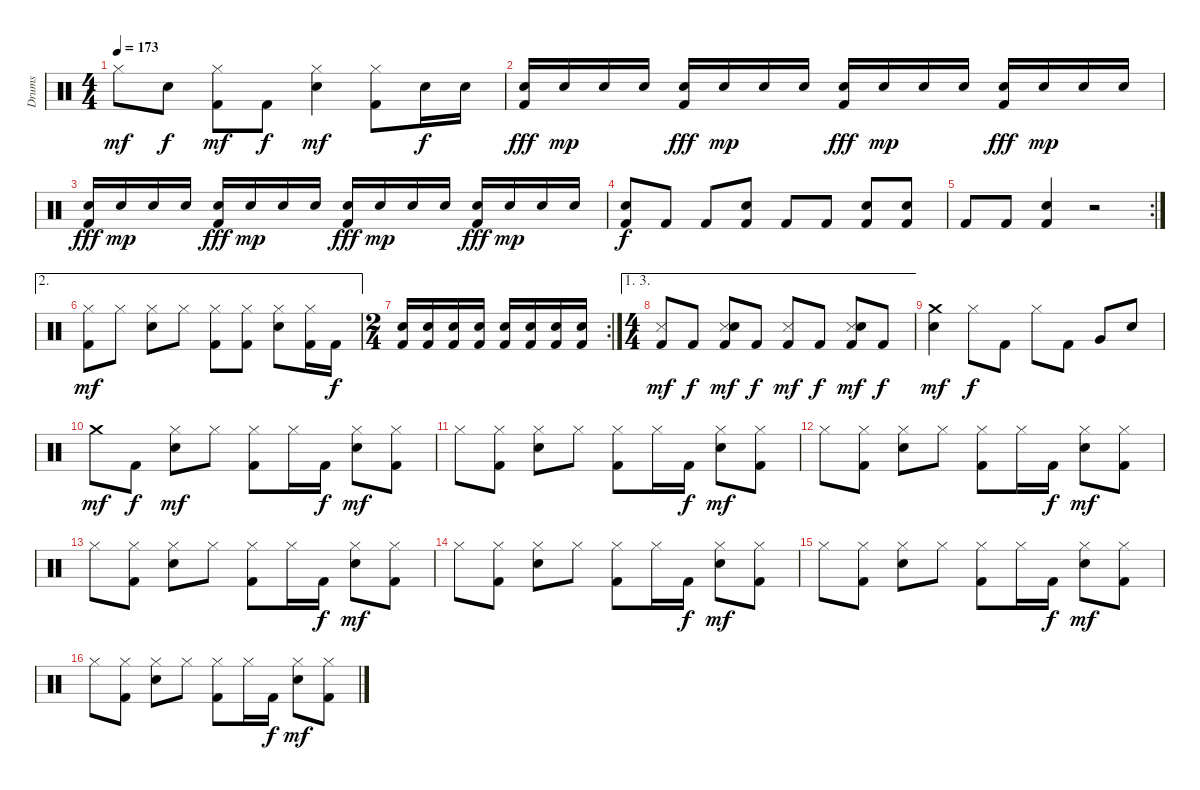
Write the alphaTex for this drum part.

\track ("Drums" "Drums") {instrument percussion}
\staff {score}
\articulation defaults
\ts (4 4)
\tempo 173
\clef neutral
\ks c "Hi-Hat (closed)".8{dy mf} "Electric Snare (hit)".8{dy f}
("Hi-Hat (closed)" "Kick (hit) 2").8{dy mf} "Kick (hit) 2".8{dy f} ("Hi-Hat (closed)" "Electric Snare (hit)").4{dy mf} ("Hi-Hat (closed)" "Kick (hit) 2").8 "Electric Snare (hit)".16{dy f} "Electric Snare (hit)".16 |
("Electric Snare (hit)" "Kick (hit) 2").16{dy fff} "Electric Snare (hit)".16{dy mp} "Electric Snare (hit)".16 "Electric Snare (hit)".16 ("Electric Snare (hit)" "Kick (hit) 2").16{dy fff} "Electric Snare (hit)".16{dy mp} "Electric Snare (hit)".16 "Electric Snare (hit)".16 ("Electric Snare (hit)" "Kick (hit) 2").16{dy fff} "Electric Snare (hit)".16{dy mp} "Electric Snare (hit)".16 "Electric Snare (hit)".16 ("Electric Snare (hit)" "Kick (hit) 2").16{dy fff} "Electric Snare (hit)".16{dy mp} "Electric Snare (hit)".16 "Electric Snare (hit)".16 |
("Electric Snare (hit)" "Kick (hit) 2").16{dy fff} "Electric Snare (hit)".16{dy mp} "Electric Snare (hit)".16 "Electric Snare (hit)".16 ("Electric Snare (hit)" "Kick (hit) 2").16{dy fff} "Electric Snare (hit)".16{dy mp} "Electric Snare (hit)".16 "Electric Snare (hit)".16 ("Electric Snare (hit)" "Kick (hit) 2").16{dy fff} "Electric Snare (hit)".16{dy mp} "Electric Snare (hit)".16 "Electric Snare (hit)".16 ("Electric Snare (hit)" "Kick (hit) 2").16{dy fff} "Electric Snare (hit)".16{dy mp} "Electric Snare (hit)".16 "Electric Snare (hit)".16 |
("Electric Snare (hit)" "Kick (hit) 2").8{dy f} "Kick (hit) 2".8 "Kick (hit) 2".8 ("Electric Snare (hit)" "Kick (hit) 2").8 "Kick (hit) 2".8 "Kick (hit) 2".8 ("Electric Snare (hit)" "Kick (hit) 2").8 ("Electric Snare (hit)" "Kick (hit) 2").8 |
\rc 2 "Kick (hit) 2".8 "Kick (hit) 2".8
("Electric Snare (hit)" "Kick (hit) 2").4 r.2 |
\ae 2
("Hi-Hat (closed)" "Kick (hit) 2").8{dy mf} "Hi-Hat (closed)".8 ("Hi-Hat (closed)" "Electric Snare (hit)").8 "Hi-Hat (closed)".8 ("Hi-Hat (closed)" "Kick (hit) 2").8 ("Hi-Hat (closed)" "Kick (hit) 2").8 ("Hi-Hat (closed)" "Electric Snare (hit)").8 ("Hi-Hat (closed)" "Kick (hit) 2").16 "Kick (hit) 2".16{dy f} |
\rc 2
\ts (2 4)
("Electric Snare (hit)" "Kick (hit) 2").16 ("Electric Snare (hit)" "Kick (hit) 2").16 ("Electric Snare (hit)" "Kick (hit) 2").16 ("Electric Snare (hit)" "Kick (hit) 2").16 ("Electric Snare (hit)" "Kick (hit) 2").16 ("Electric Snare (hit)" "Kick (hit) 2").16 ("Electric Snare (hit)" "Kick (hit) 2").16 ("Electric Snare (hit)" "Kick (hit) 2").16 |
\ae (1 3)
\ts (4 4)
("Metronome (hit)" "Kick (hit) 2").8{dy mf} "Kick (hit) 2".8{dy f} ("Metronome (hit)" "Electric Snare (hit)" "Kick (hit) 2").8{dy mf} "Kick (hit) 2".8{dy f} ("Metronome (hit)" "Kick (hit) 2").8{dy mf} "Kick (hit) 2".8{dy f} ("Metronome (hit)" "Electric Snare (hit)" "Kick (hit) 2").8{dy mf} "Kick (hit) 2".8{dy f} |
("Crash medium (hit)" "Electric Snare (hit)").4{dy mf} "Hi-Hat (closed)".8{dy f} "Kick (hit) 2".8 "Hi-Hat (closed)".8 "Kick (hit) 2".8 "Very Low Tom (hit)".8 "Electric Snare (hit)".8 |
"Crash medium (hit)".8{dy mf} "Kick (hit) 2".8{dy f} ("Hi-Hat (closed)" "Electric Snare (hit)").8{dy mf} "Hi-Hat (closed)".8 ("Hi-Hat (closed)" "Kick (hit) 2").8 "Hi-Hat (closed)".16 "Kick (hit) 2".16{dy f} ("Hi-Hat (closed)" "Electric Snare (hit)").8{dy mf} ("Hi-Hat (closed)" "Kick (hit) 2").8 |
"Hi-Hat (closed)".8 ("Hi-Hat (closed)" "Kick (hit) 2").8 ("Hi-Hat (closed)" "Electric Snare (hit)").8 "Hi-Hat (closed)".8 ("Hi-Hat (closed)" "Kick (hit) 2").8 "Hi-Hat (closed)".16 "Kick (hit) 2".16{dy f} ("Hi-Hat (closed)" "Electric Snare (hit)").8{dy mf} ("Hi-Hat (closed)" "Kick (hit) 2").8 |
"Hi-Hat (closed)".8 ("Hi-Hat (closed)" "Kick (hit) 2").8 ("Hi-Hat (closed)" "Electric Snare (hit)").8 "Hi-Hat (closed)".8 ("Hi-Hat (closed)" "Kick (hit) 2").8 "Hi-Hat (closed)".16 "Kick (hit) 2".16{dy f} ("Hi-Hat (closed)" "Electric Snare (hit)").8{dy mf} ("Hi-Hat (closed)" "Kick (hit) 2").8 |
"Hi-Hat (closed)".8 ("Hi-Hat (closed)" "Kick (hit) 2").8 ("Hi-Hat (closed)" "Electric Snare (hit)").8 "Hi-Hat (closed)".8 ("Hi-Hat (closed)" "Kick (hit) 2").8 "Hi-Hat (closed)".16 "Kick (hit) 2".16{dy f} ("Hi-Hat (closed)" "Electric Snare (hit)").8{dy mf} ("Hi-Hat (closed)" "Kick (hit) 2").8 |
"Hi-Hat (closed)".8 ("Hi-Hat (closed)" "Kick (hit) 2").8 ("Hi-Hat (closed)" "Electric Snare (hit)").8 "Hi-Hat (closed)".8 ("Hi-Hat (closed)" "Kick (hit) 2").8 "Hi-Hat (closed)".16 "Kick (hit) 2".16{dy f} ("Hi-Hat (closed)" "Electric Snare (hit)").8{dy mf} ("Hi-Hat (closed)" "Kick (hit) 2").8 |
"Hi-Hat (closed)".8 ("Hi-Hat (closed)" "Kick (hit) 2").8 ("Hi-Hat (closed)" "Electric Snare (hit)").8 "Hi-Hat (closed)".8 ("Hi-Hat (closed)" "Kick (hit) 2").8 "Hi-Hat (closed)".16 "Kick (hit) 2".16{dy f} ("Hi-Hat (closed)" "Electric Snare (hit)").8{dy mf} ("Hi-Hat (closed)" "Kick (hit) 2").8 |
"Hi-Hat (closed)".8 ("Hi-Hat (closed)" "Kick (hit) 2").8 ("Hi-Hat (closed)" "Electric Snare (hit)").8 "Hi-Hat (closed)".8 ("Hi-Hat (closed)" "Kick (hit) 2").8 "Hi-Hat (closed)".16 "Kick (hit) 2".16{dy f} ("Hi-Hat (closed)" "Electric Snare (hit)").8{dy mf} ("Hi-Hat (closed)" "Kick (hit) 2").8
